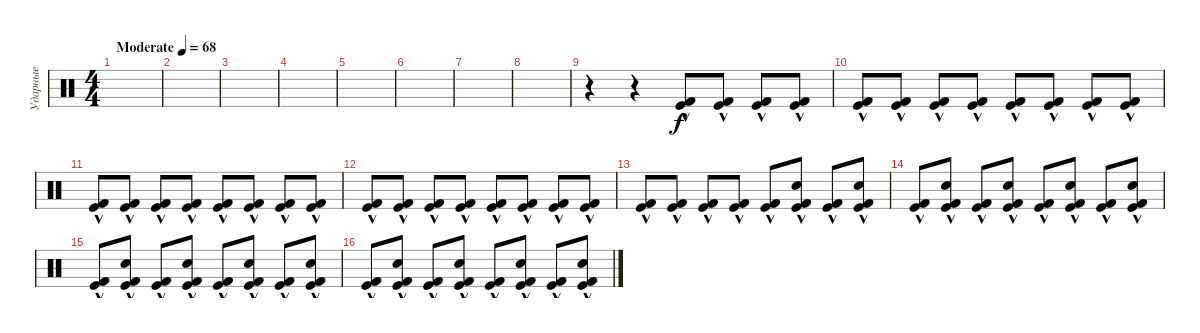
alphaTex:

\track ("Ударные" "Ударные") {instrument percussion}
\staff {score}
\articulation defaults
\ts (4 4)
\tempo (68 "Moderate")
\clef neutral
\ks c
|
|
|
|
|
|
|
|
r.4 r.4 ("Kick (hit)"{hac} "Kick (hit) 2"{hac}).8 ("Kick (hit)"{hac} "Kick (hit) 2"{hac}).8 ("Kick (hit)"{hac} "Kick (hit) 2"{hac}).8 ("Kick (hit)"{hac} "Kick (hit) 2"{hac}).8 |
("Kick (hit)"{hac} "Kick (hit) 2"{hac}).8 ("Kick (hit)"{hac} "Kick (hit) 2"{hac}).8 ("Kick (hit)"{hac} "Kick (hit) 2"{hac}).8 ("Kick (hit)"{hac} "Kick (hit) 2"{hac}).8 ("Kick (hit)"{hac} "Kick (hit) 2"{hac}).8 ("Kick (hit)"{hac} "Kick (hit) 2"{hac}).8 ("Kick (hit)"{hac} "Kick (hit) 2"{hac}).8 ("Kick (hit)"{hac} "Kick (hit) 2"{hac}).8 |
("Kick (hit)"{hac} "Kick (hit) 2"{hac}).8 ("Kick (hit)"{hac} "Kick (hit) 2"{hac}).8 ("Kick (hit)"{hac} "Kick (hit) 2"{hac}).8 ("Kick (hit)"{hac} "Kick (hit) 2"{hac}).8 ("Kick (hit)"{hac} "Kick (hit) 2"{hac}).8 ("Kick (hit)"{hac} "Kick (hit) 2"{hac}).8 ("Kick (hit)"{hac} "Kick (hit) 2"{hac}).8 ("Kick (hit)"{hac} "Kick (hit) 2"{hac}).8 |
("Kick (hit)"{hac} "Kick (hit) 2"{hac}).8 ("Kick (hit)"{hac} "Kick (hit) 2"{hac}).8 ("Kick (hit)"{hac} "Kick (hit) 2"{hac}).8 ("Kick (hit)"{hac} "Kick (hit) 2"{hac}).8 ("Kick (hit)"{hac} "Kick (hit) 2"{hac}).8 ("Kick (hit)"{hac} "Kick (hit) 2"{hac}).8 ("Kick (hit)"{hac} "Kick (hit) 2"{hac}).8 ("Kick (hit)"{hac} "Kick (hit) 2"{hac}).8 |
("Kick (hit)"{hac} "Kick (hit) 2"{hac}).8 ("Kick (hit)"{hac} "Kick (hit) 2"{hac}).8 ("Kick (hit)"{hac} "Kick (hit) 2"{hac}).8 ("Kick (hit)"{hac} "Kick (hit) 2"{hac}).8 ("Kick (hit)"{hac} "Kick (hit) 2"{hac}).8 ("Kick (hit)"{hac} "Kick (hit) 2"{hac} "Hand Clap (hit)").8 ("Kick (hit)"{hac} "Kick (hit) 2"{hac}).8 ("Kick (hit)"{hac} "Kick (hit) 2"{hac} "Hand Clap (hit)").8 |
("Kick (hit)"{hac} "Kick (hit) 2"{hac}).8 ("Kick (hit)"{hac} "Kick (hit) 2"{hac} "Hand Clap (hit)").8 ("Kick (hit)"{hac} "Kick (hit) 2"{hac}).8 ("Kick (hit)"{hac} "Kick (hit) 2"{hac} "Hand Clap (hit)").8 ("Kick (hit)"{hac} "Kick (hit) 2"{hac}).8 ("Kick (hit)"{hac} "Kick (hit) 2"{hac} "Hand Clap (hit)").8 ("Kick (hit)"{hac} "Kick (hit) 2"{hac}).8 ("Kick (hit)"{hac} "Kick (hit) 2"{hac} "Hand Clap (hit)").8 |
("Kick (hit)"{hac} "Kick (hit) 2"{hac}).8 ("Kick (hit)"{hac} "Kick (hit) 2"{hac} "Hand Clap (hit)").8 ("Kick (hit)"{hac} "Kick (hit) 2"{hac}).8 ("Kick (hit)"{hac} "Kick (hit) 2"{hac} "Hand Clap (hit)").8 ("Kick (hit)"{hac} "Kick (hit) 2"{hac}).8 ("Kick (hit)"{hac} "Kick (hit) 2"{hac} "Hand Clap (hit)").8 ("Kick (hit)"{hac} "Kick (hit) 2"{hac}).8 ("Kick (hit)"{hac} "Kick (hit) 2"{hac} "Hand Clap (hit)").8 |
("Kick (hit)"{hac} "Kick (hit) 2"{hac}).8 ("Kick (hit)"{hac} "Kick (hit) 2"{hac} "Hand Clap (hit)").8 ("Kick (hit)"{hac} "Kick (hit) 2"{hac}).8 ("Kick (hit)"{hac} "Kick (hit) 2"{hac} "Hand Clap (hit)").8 ("Kick (hit)"{hac} "Kick (hit) 2"{hac}).8 ("Kick (hit)"{hac} "Kick (hit) 2"{hac} "Hand Clap (hit)").8 ("Kick (hit)"{hac} "Kick (hit) 2"{hac}).8 ("Kick (hit)"{hac} "Kick (hit) 2"{hac} "Hand Clap (hit)").8
